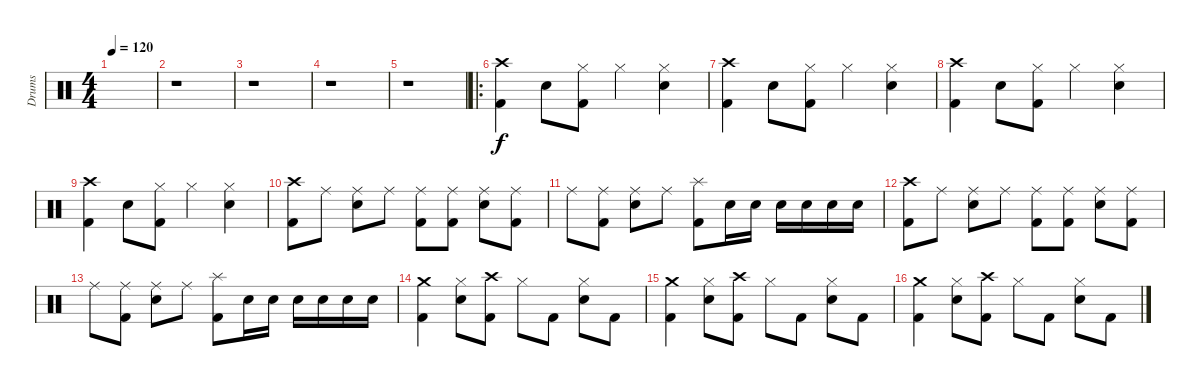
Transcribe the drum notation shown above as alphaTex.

\track ("Drums" "Drums") {instrument percussion}
\staff {score}
\articulation defaults
\ts (4 4)
\tempo 120
\clef neutral
\ks c
|
r.1 |
r.1 |
r.1 |
r.1 |
\ro
("Crash high (hit)" "Kick (hit) 2").4 "Snare (hit) 2".8 ("Hi-Hat (closed)" "Kick (hit) 2").8 "Hi-Hat (closed)".4 ("Hi-Hat (closed)" "Snare (hit) 2").4 |
("Crash high (hit)" "Kick (hit) 2").4 "Snare (hit) 2".8 ("Hi-Hat (closed)" "Kick (hit) 2").8 "Hi-Hat (closed)".4 ("Hi-Hat (closed)" "Snare (hit) 2").4 |
("Crash high (hit)" "Kick (hit) 2").4 "Snare (hit) 2".8 ("Hi-Hat (closed)" "Kick (hit) 2").8 "Hi-Hat (closed)".4 ("Hi-Hat (closed)" "Snare (hit) 2").4 |
("Crash high (hit)" "Kick (hit) 2").4 "Snare (hit) 2".8 ("Hi-Hat (closed)" "Kick (hit) 2").8 "Hi-Hat (closed)".4 ("Hi-Hat (closed)" "Snare (hit) 2").4 |
("Crash high (hit)" "Kick (hit) 2").8 "Ride (middle)".8 ("Ride (middle)" "Snare (hit) 2").8 "Ride (middle)".8 ("Ride (middle)" "Kick (hit) 2").8 ("Ride (middle)" "Kick (hit) 2").8 ("Ride (middle)" "Snare (hit) 2").8 ("Ride (middle)" "Kick (hit) 2").8 |
"Ride (middle)".8 ("Ride (middle)" "Kick (hit) 2").8 ("Ride (middle)" "Snare (hit) 2").8 "Ride (middle)".8 ("Splash (hit)" "Kick (hit) 2").8 "Snare (hit) 2".16 "Snare (hit) 2".16 "Snare (hit) 2".16 "Snare (hit) 2".16 "Snare (hit) 2".16 "Snare (hit) 2".16 |
("Crash high (hit)" "Kick (hit) 2").8 "Ride (middle)".8 ("Ride (middle)" "Snare (hit) 2").8 "Ride (middle)".8 ("Ride (middle)" "Kick (hit) 2").8 ("Ride (middle)" "Kick (hit) 2").8 ("Ride (middle)" "Snare (hit) 2").8 ("Ride (middle)" "Kick (hit) 2").8 |
"Ride (middle)".8 ("Ride (middle)" "Kick (hit) 2").8 ("Ride (middle)" "Snare (hit) 2").8 "Ride (middle)".8 ("Splash (hit)" "Kick (hit) 2").8 "Snare (hit) 2".16 "Snare (hit) 2".16 "Snare (hit) 2".16 "Snare (hit) 2".16 "Snare (hit) 2".16 "Snare (hit) 2".16 |
("Crash medium (hit)" "Kick (hit) 2").4 ("Hi-Hat (closed)" "Snare (hit) 2").8 ("Crash high (hit)" "Kick (hit) 2").8 "Hi-Hat (closed)".8 "Kick (hit) 2".8 ("Hi-Hat (closed)" "Snare (hit) 2").8 "Kick (hit) 2".8 |
("Crash medium (hit)" "Kick (hit) 2").4 ("Hi-Hat (closed)" "Snare (hit) 2").8 ("Crash high (hit)" "Kick (hit) 2").8 "Hi-Hat (closed)".8 "Kick (hit) 2".8 ("Hi-Hat (closed)" "Snare (hit) 2").8 "Kick (hit) 2".8 |
("Crash medium (hit)" "Kick (hit) 2").4 ("Hi-Hat (closed)" "Snare (hit) 2").8 ("Crash high (hit)" "Kick (hit) 2").8 "Hi-Hat (closed)".8 "Kick (hit) 2".8 ("Hi-Hat (closed)" "Snare (hit) 2").8 "Kick (hit) 2".8
